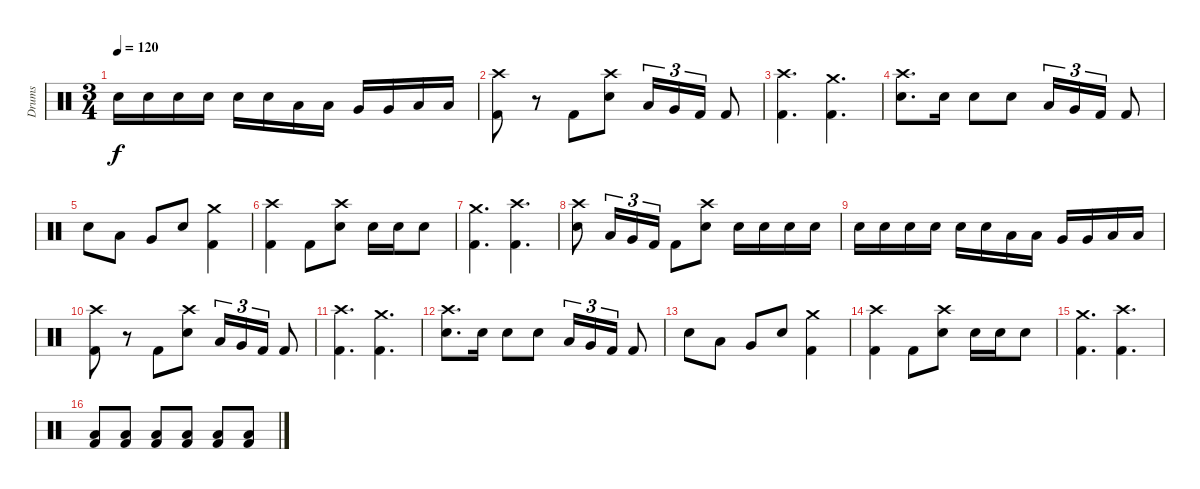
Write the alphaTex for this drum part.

\track ("Drums" "Drums") {instrument percussion}
\staff {score}
\articulation defaults
\ts (3 4)
\tempo 120
\clef neutral
\ks c "Snare (hit) 2".16{dy f} "Snare (hit) 2".16 "Snare (hit) 2".16 "Snare (hit) 2".16 "Snare (hit) 2".16 "Snare (hit) 2".16 "Low Tom (hit)".16 "Low Tom (hit)".16 "Very Low Tom (hit)".16 "Very Low Tom (hit)".16 "Low Floor Tom (hit)".16 "Low Floor Tom (hit)".16
|
("Crash high (hit)" "Kick (hit) 2").8 r.8 "Kick (hit) 2".8 ("Crash high (hit)" "Snare (hit) 2").8 "Low Tom (hit)".16{tu (3 2)} "Very Low Tom (hit)".16{tu (3 2)} "Kick (hit) 2".16{tu (3 2)} "Kick (hit) 2".8 |
("Crash high (hit)" "Kick (hit) 2").4{d} ("Crash medium (hit)" "Kick (hit) 2").4{d} |
("Crash high (hit)" "Snare (hit) 2").8{d} "Snare (hit) 2".16 "Snare (hit) 2".8 "Snare (hit) 2".8 "Low Tom (hit)".16{tu (3 2)} "Very Low Tom (hit)".16{tu (3 2)} "Kick (hit) 2".16{tu (3 2)} "Kick (hit) 2".8 |
"Snare (hit) 2".8 "Low Tom (hit)".8 "Very Low Tom (hit)".8 "Snare (hit) 2".8 ("Crash medium (hit)" "Kick (hit) 2").4 |
("Crash high (hit)" "Kick (hit) 2").4 "Kick (hit) 2".8 ("Crash high (hit)" "Snare (hit) 2").8 "Snare (hit) 2".16 "Snare (hit) 2".16 "Snare (hit) 2".8 |
("Crash medium (hit)" "Kick (hit) 2").4{d} ("Crash high (hit)" "Kick (hit) 2").4{d} |
("Crash high (hit)" "Snare (hit) 2").8 "Low Tom (hit)".16{tu (3 2)} "Very Low Tom (hit)".16{tu (3 2)} "Kick (hit) 2".16{tu (3 2)} "Kick (hit) 2".8 ("Crash high (hit)" "Snare (hit) 2").8 "Snare (hit) 2".16 "Snare (hit) 2".16 "Snare (hit) 2".16 "Snare (hit) 2".16 |
"Snare (hit) 2".16 "Snare (hit) 2".16 "Snare (hit) 2".16 "Snare (hit) 2".16 "Snare (hit) 2".16 "Snare (hit) 2".16 "Low Tom (hit)".16 "Low Tom (hit)".16 "Very Low Tom (hit)".16 "Very Low Tom (hit)".16 "Low Floor Tom (hit)".16 "Low Floor Tom (hit)".16 |
("Crash high (hit)" "Kick (hit) 2").8 r.8 "Kick (hit) 2".8 ("Crash high (hit)" "Snare (hit) 2").8 "Low Tom (hit)".16{tu (3 2)} "Very Low Tom (hit)".16{tu (3 2)} "Kick (hit) 2".16{tu (3 2)} "Kick (hit) 2".8 |
("Crash high (hit)" "Kick (hit) 2").4{d} ("Crash medium (hit)" "Kick (hit) 2").4{d} |
("Crash high (hit)" "Snare (hit) 2").8{d} "Snare (hit) 2".16 "Snare (hit) 2".8 "Snare (hit) 2".8 "Low Tom (hit)".16{tu (3 2)} "Very Low Tom (hit)".16{tu (3 2)} "Kick (hit) 2".16{tu (3 2)} "Kick (hit) 2".8 |
"Snare (hit) 2".8 "Low Tom (hit)".8 "Very Low Tom (hit)".8 "Snare (hit) 2".8 ("Crash medium (hit)" "Kick (hit) 2").4 |
("Crash high (hit)" "Kick (hit) 2").4 "Kick (hit) 2".8 ("Crash high (hit)" "Snare (hit) 2").8 "Snare (hit) 2".16 "Snare (hit) 2".16 "Snare (hit) 2".8 |
("Crash medium (hit)" "Kick (hit) 2").4{d} ("Crash high (hit)" "Kick (hit) 2").4{d} |
("Kick (hit) 2" "Low Floor Tom (hit)").8 ("Kick (hit) 2" "Low Floor Tom (hit)").8 ("Kick (hit) 2" "Low Floor Tom (hit)").8 ("Kick (hit) 2" "Low Floor Tom (hit)").8 ("Kick (hit) 2" "Low Floor Tom (hit)").8 ("Kick (hit) 2" "Low Floor Tom (hit)").8
